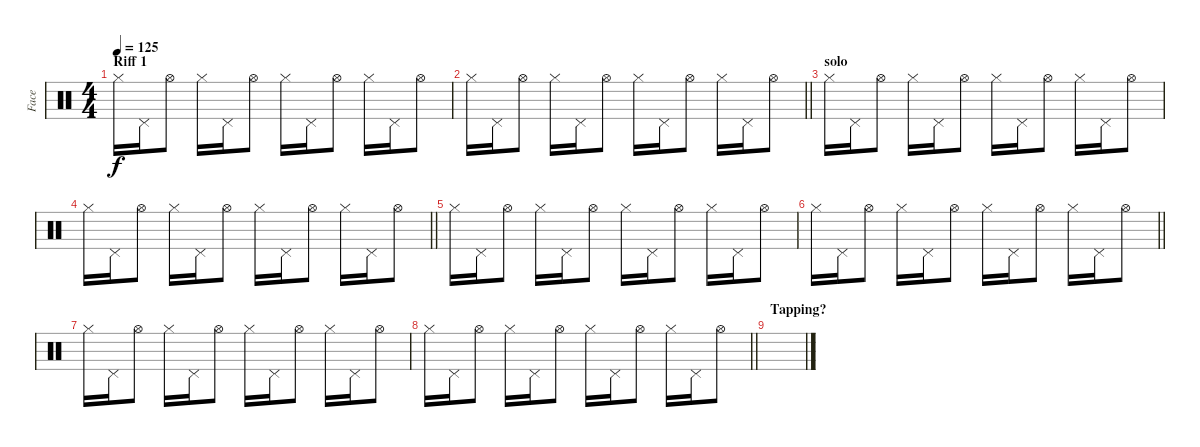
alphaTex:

\track ("Face" "Face") {instrument percussion}
\staff {score}
\articulation defaults
\ts (4 4)
\section ("" "Riff 1")
\tempo 125
\clef neutral
\ks c "Hi-Hat (closed)".16{dy f} "Pedal Hi-Hat (hit)".16 "Hi-Hat (open)".8 "Hi-Hat (closed)".16 "Pedal Hi-Hat (hit)".16 "Hi-Hat (open)".8 "Hi-Hat (closed)".16 "Pedal Hi-Hat (hit)".16 "Hi-Hat (open)".8 "Hi-Hat (closed)".16 "Pedal Hi-Hat (hit)".16 "Hi-Hat (open)".8
|
\barLineRight lightlight "Hi-Hat (closed)".16 "Pedal Hi-Hat (hit)".16 "Hi-Hat (open)".8 "Hi-Hat (closed)".16 "Pedal Hi-Hat (hit)".16 "Hi-Hat (open)".8 "Hi-Hat (closed)".16 "Pedal Hi-Hat (hit)".16 "Hi-Hat (open)".8 "Hi-Hat (closed)".16 "Pedal Hi-Hat (hit)".16 "Hi-Hat (open)".8
|
\section ("" "solo")
"Hi-Hat (closed)".16 "Pedal Hi-Hat (hit)".16 "Hi-Hat (open)".8 "Hi-Hat (closed)".16 "Pedal Hi-Hat (hit)".16 "Hi-Hat (open)".8 "Hi-Hat (closed)".16 "Pedal Hi-Hat (hit)".16 "Hi-Hat (open)".8 "Hi-Hat (closed)".16 "Pedal Hi-Hat (hit)".16 "Hi-Hat (open)".8 |
\barLineRight lightlight "Hi-Hat (closed)".16 "Pedal Hi-Hat (hit)".16 "Hi-Hat (open)".8 "Hi-Hat (closed)".16 "Pedal Hi-Hat (hit)".16 "Hi-Hat (open)".8 "Hi-Hat (closed)".16 "Pedal Hi-Hat (hit)".16 "Hi-Hat (open)".8 "Hi-Hat (closed)".16 "Pedal Hi-Hat (hit)".16 "Hi-Hat (open)".8
|
"Hi-Hat (closed)".16 "Pedal Hi-Hat (hit)".16 "Hi-Hat (open)".8 "Hi-Hat (closed)".16 "Pedal Hi-Hat (hit)".16 "Hi-Hat (open)".8 "Hi-Hat (closed)".16 "Pedal Hi-Hat (hit)".16 "Hi-Hat (open)".8 "Hi-Hat (closed)".16 "Pedal Hi-Hat (hit)".16 "Hi-Hat (open)".8 |
\barLineRight lightlight "Hi-Hat (closed)".16 "Pedal Hi-Hat (hit)".16 "Hi-Hat (open)".8 "Hi-Hat (closed)".16 "Pedal Hi-Hat (hit)".16 "Hi-Hat (open)".8 "Hi-Hat (closed)".16 "Pedal Hi-Hat (hit)".16 "Hi-Hat (open)".8 "Hi-Hat (closed)".16 "Pedal Hi-Hat (hit)".16 "Hi-Hat (open)".8
|
"Hi-Hat (closed)".16 "Pedal Hi-Hat (hit)".16 "Hi-Hat (open)".8 "Hi-Hat (closed)".16 "Pedal Hi-Hat (hit)".16 "Hi-Hat (open)".8 "Hi-Hat (closed)".16 "Pedal Hi-Hat (hit)".16 "Hi-Hat (open)".8 "Hi-Hat (closed)".16 "Pedal Hi-Hat (hit)".16 "Hi-Hat (open)".8 |
\barLineRight lightlight "Hi-Hat (closed)".16 "Pedal Hi-Hat (hit)".16 "Hi-Hat (open)".8 "Hi-Hat (closed)".16 "Pedal Hi-Hat (hit)".16 "Hi-Hat (open)".8 "Hi-Hat (closed)".16 "Pedal Hi-Hat (hit)".16 "Hi-Hat (open)".8 "Hi-Hat (closed)".16 "Pedal Hi-Hat (hit)".16 "Hi-Hat (open)".8
|
\section ("" "Tapping?")
